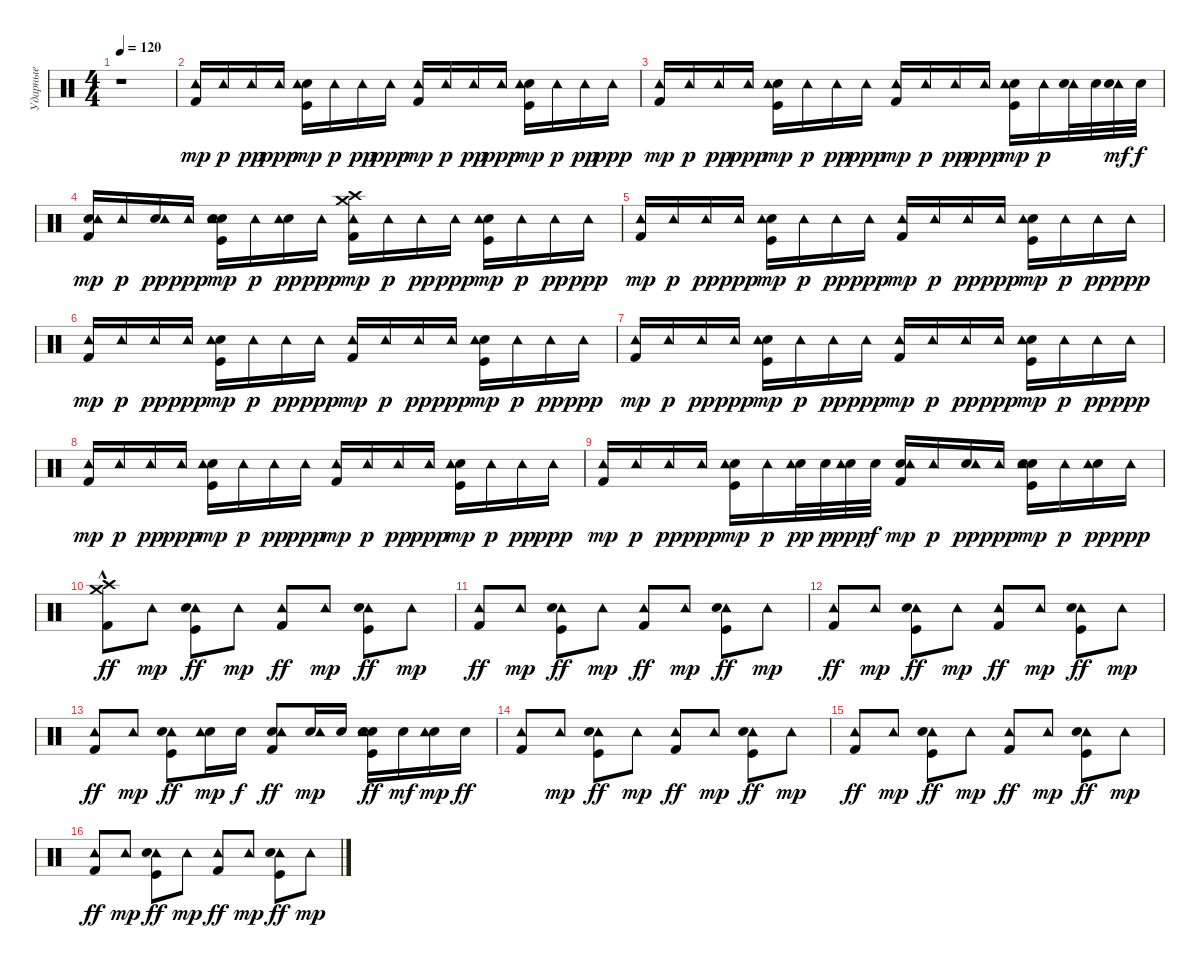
\track ("Ударные" "Ударные") {instrument percussion}
\staff {score}
\articulation defaults
\ts (4 4)
\tempo 120
\clef neutral
\ks c
r.1{dy mp} |
("Kick (hit) 2" "Tambourine (hit)").16 "Tambourine (hit)".16{dy p} "Tambourine (hit)".16{dy pp} "Tambourine (hit)".16{dy ppp} ("Kick (hit)" "Snare (hit) 2" "Tambourine (hit)").16{dy mp} "Tambourine (hit)".16{dy p} "Tambourine (hit)".16{dy pp} "Tambourine (hit)".16{dy ppp} ("Kick (hit) 2" "Tambourine (hit)").16{dy mp} "Tambourine (hit)".16{dy p} "Tambourine (hit)".16{dy pp} "Tambourine (hit)".16{dy ppp} ("Kick (hit)" "Snare (hit) 2" "Tambourine (hit)").16{dy mp} "Tambourine (hit)".16{dy p} "Tambourine (hit)".16{dy pp} "Tambourine (hit)".16{dy ppp} |
("Kick (hit) 2" "Tambourine (hit)").16{dy mp} "Tambourine (hit)".16{dy p} "Tambourine (hit)".16{dy pp} "Tambourine (hit)".16{dy ppp} ("Kick (hit)" "Snare (hit) 2" "Tambourine (hit)").16{dy mp} "Tambourine (hit)".16{dy p} "Tambourine (hit)".16{dy pp} "Tambourine (hit)".16{dy ppp} ("Kick (hit) 2" "Tambourine (hit)").16{dy mp} "Tambourine (hit)".16{dy p} "Tambourine (hit)".16{dy pp} "Tambourine (hit)".16{dy ppp} ("Kick (hit)" "Snare (hit) 2" "Tambourine (hit)").16{dy mp} "Tambourine (hit)".16{dy p} ("Tambourine (hit)" "Electric Snare (hit)").32 "Electric Snare (hit)".32 ("Tambourine (hit)" "Electric Snare (hit)").32{dy mf} "Electric Snare (hit)".32{dy f} |
("Electric Snare (hit)" "Kick (hit) 2" "Tambourine (hit)").16{dy mp} "Tambourine (hit)".16{dy p} ("Electric Snare (hit)" "Tambourine (hit)").16{dy pp} "Tambourine (hit)".16{dy ppp} ("Electric Snare (hit)" "Kick (hit)" "Snare (hit) 2" "Tambourine (hit)").16{dy mp} "Tambourine (hit)".16{dy p} ("Electric Snare (hit)" "Tambourine (hit)").16{dy pp} "Tambourine (hit)".16{dy ppp} ("Crash medium (hit)" "Crash high (hit)" "Kick (hit) 2" "Tambourine (hit)").16{dy mp} "Tambourine (hit)".16{dy p} "Tambourine (hit)".16{dy pp} "Tambourine (hit)".16{dy ppp} ("Kick (hit)" "Snare (hit) 2" "Tambourine (hit)").16{dy mp} "Tambourine (hit)".16{dy p} "Tambourine (hit)".16{dy pp} "Tambourine (hit)".16{dy ppp} |
("Kick (hit) 2" "Tambourine (hit)").16{dy mp} "Tambourine (hit)".16{dy p} "Tambourine (hit)".16{dy pp} "Tambourine (hit)".16{dy ppp} ("Kick (hit)" "Snare (hit) 2" "Tambourine (hit)").16{dy mp} "Tambourine (hit)".16{dy p} "Tambourine (hit)".16{dy pp} "Tambourine (hit)".16{dy ppp} ("Kick (hit) 2" "Tambourine (hit)").16{dy mp} "Tambourine (hit)".16{dy p} "Tambourine (hit)".16{dy pp} "Tambourine (hit)".16{dy ppp} ("Kick (hit)" "Snare (hit) 2" "Tambourine (hit)").16{dy mp} "Tambourine (hit)".16{dy p} "Tambourine (hit)".16{dy pp} "Tambourine (hit)".16{dy ppp} |
("Kick (hit) 2" "Tambourine (hit)").16{dy mp} "Tambourine (hit)".16{dy p} "Tambourine (hit)".16{dy pp} "Tambourine (hit)".16{dy ppp} ("Kick (hit)" "Snare (hit) 2" "Tambourine (hit)").16{dy mp} "Tambourine (hit)".16{dy p} "Tambourine (hit)".16{dy pp} "Tambourine (hit)".16{dy ppp} ("Kick (hit) 2" "Tambourine (hit)").16{dy mp} "Tambourine (hit)".16{dy p} "Tambourine (hit)".16{dy pp} "Tambourine (hit)".16{dy ppp} ("Kick (hit)" "Snare (hit) 2" "Tambourine (hit)").16{dy mp} "Tambourine (hit)".16{dy p} "Tambourine (hit)".16{dy pp} "Tambourine (hit)".16{dy ppp} |
("Kick (hit) 2" "Tambourine (hit)").16{dy mp} "Tambourine (hit)".16{dy p} "Tambourine (hit)".16{dy pp} "Tambourine (hit)".16{dy ppp} ("Kick (hit)" "Snare (hit) 2" "Tambourine (hit)").16{dy mp} "Tambourine (hit)".16{dy p} "Tambourine (hit)".16{dy pp} "Tambourine (hit)".16{dy ppp} ("Kick (hit) 2" "Tambourine (hit)").16{dy mp} "Tambourine (hit)".16{dy p} "Tambourine (hit)".16{dy pp} "Tambourine (hit)".16{dy ppp} ("Kick (hit)" "Snare (hit) 2" "Tambourine (hit)").16{dy mp} "Tambourine (hit)".16{dy p} "Tambourine (hit)".16{dy pp} "Tambourine (hit)".16{dy ppp} |
("Kick (hit) 2" "Tambourine (hit)").16{dy mp} "Tambourine (hit)".16{dy p} "Tambourine (hit)".16{dy pp} "Tambourine (hit)".16{dy ppp} ("Kick (hit)" "Snare (hit) 2" "Tambourine (hit)").16{dy mp} "Tambourine (hit)".16{dy p} "Tambourine (hit)".16{dy pp} "Tambourine (hit)".16{dy ppp} ("Kick (hit) 2" "Tambourine (hit)").16{dy mp} "Tambourine (hit)".16{dy p} "Tambourine (hit)".16{dy pp} "Tambourine (hit)".16{dy ppp} ("Kick (hit)" "Snare (hit) 2" "Tambourine (hit)").16{dy mp} "Tambourine (hit)".16{dy p} "Tambourine (hit)".16{dy pp} "Tambourine (hit)".16{dy ppp} |
("Kick (hit) 2" "Tambourine (hit)").16{dy mp} "Tambourine (hit)".16{dy p} "Tambourine (hit)".16{dy pp} "Tambourine (hit)".16{dy ppp} ("Kick (hit)" "Snare (hit) 2" "Tambourine (hit)").16{dy mp} "Tambourine (hit)".16{dy p} ("Electric Snare (hit)" "Tambourine (hit)").32{dy pp} "Electric Snare (hit)".32{dy p} ("Electric Snare (hit)" "Tambourine (hit)").32{dy ppp} "Electric Snare (hit)".32{dy f} ("Electric Snare (hit)" "Kick (hit) 2" "Tambourine (hit)").16{dy mp} "Tambourine (hit)".16{dy p} ("Electric Snare (hit)" "Tambourine (hit)").16{dy pp} "Tambourine (hit)".16{dy ppp} ("Electric Snare (hit)" "Kick (hit)" "Snare (hit) 2" "Tambourine (hit)").16{dy mp} "Tambourine (hit)".16{dy p} ("Electric Snare (hit)" "Tambourine (hit)").16{dy pp} "Tambourine (hit)".16{dy ppp} |
("Crash medium (hit)"{hac} "Crash high (hit)"{hac} "Kick (hit) 2").8{dy ff} "Tambourine (hit)".8{dy mp} ("Tambourine (hit)" "Kick (hit)" "Snare (hit) 2").8{dy ff} "Tambourine (hit)".8{dy mp} ("Tambourine (hit)" "Kick (hit) 2").8{dy ff} "Tambourine (hit)".8{dy mp} ("Tambourine (hit)" "Kick (hit)" "Snare (hit) 2").8{dy ff} "Tambourine (hit)".8{dy mp} |
("Tambourine (hit)" "Kick (hit) 2").8{dy ff} "Tambourine (hit)".8{dy mp} ("Tambourine (hit)" "Kick (hit)" "Snare (hit) 2").8{dy ff} "Tambourine (hit)".8{dy mp} ("Tambourine (hit)" "Kick (hit) 2").8{dy ff} "Tambourine (hit)".8{dy mp} ("Tambourine (hit)" "Kick (hit)" "Snare (hit) 2").8{dy ff} "Tambourine (hit)".8{dy mp} |
("Tambourine (hit)" "Kick (hit) 2").8{dy ff} "Tambourine (hit)".8{dy mp} ("Tambourine (hit)" "Kick (hit)" "Snare (hit) 2").8{dy ff} "Tambourine (hit)".8{dy mp} ("Tambourine (hit)" "Kick (hit) 2").8{dy ff} "Tambourine (hit)".8{dy mp} ("Tambourine (hit)" "Kick (hit)" "Snare (hit) 2").8{dy ff} "Tambourine (hit)".8{dy mp} |
("Tambourine (hit)" "Kick (hit) 2").8{dy ff} "Tambourine (hit)".8{dy mp} ("Tambourine (hit)" "Kick (hit)" "Snare (hit) 2").8{dy ff} ("Electric Snare (hit)" "Tambourine (hit)").16{dy mp} "Electric Snare (hit)".16{dy f} ("Electric Snare (hit)" "Tambourine (hit)" "Kick (hit) 2").8{dy ff} ("Electric Snare (hit)" "Tambourine (hit)").16{dy mp} "Electric Snare (hit)".16 ("Electric Snare (hit)" "Tambourine (hit)" "Kick (hit)" "Snare (hit) 2").16{dy ff} "Electric Snare (hit)".16{dy mf} ("Electric Snare (hit)" "Tambourine (hit)").16{dy mp} "Electric Snare (hit)".16{dy ff} |
("Tambourine (hit)" "Kick (hit) 2").8 "Tambourine (hit)".8{dy mp} ("Tambourine (hit)" "Kick (hit)" "Snare (hit) 2").8{dy ff} "Tambourine (hit)".8{dy mp} ("Tambourine (hit)" "Kick (hit) 2").8{dy ff} "Tambourine (hit)".8{dy mp} ("Tambourine (hit)" "Kick (hit)" "Snare (hit) 2").8{dy ff} "Tambourine (hit)".8{dy mp} |
("Tambourine (hit)" "Kick (hit) 2").8{dy ff} "Tambourine (hit)".8{dy mp} ("Tambourine (hit)" "Kick (hit)" "Snare (hit) 2").8{dy ff} "Tambourine (hit)".8{dy mp} ("Tambourine (hit)" "Kick (hit) 2").8{dy ff} "Tambourine (hit)".8{dy mp} ("Tambourine (hit)" "Kick (hit)" "Snare (hit) 2").8{dy ff} "Tambourine (hit)".8{dy mp} |
("Tambourine (hit)" "Kick (hit) 2").8{dy ff} "Tambourine (hit)".8{dy mp} ("Tambourine (hit)" "Kick (hit)" "Snare (hit) 2").8{dy ff} "Tambourine (hit)".8{dy mp} ("Tambourine (hit)" "Kick (hit) 2").8{dy ff} "Tambourine (hit)".8{dy mp} ("Tambourine (hit)" "Kick (hit)" "Snare (hit) 2").8{dy ff} "Tambourine (hit)".8{dy mp}
